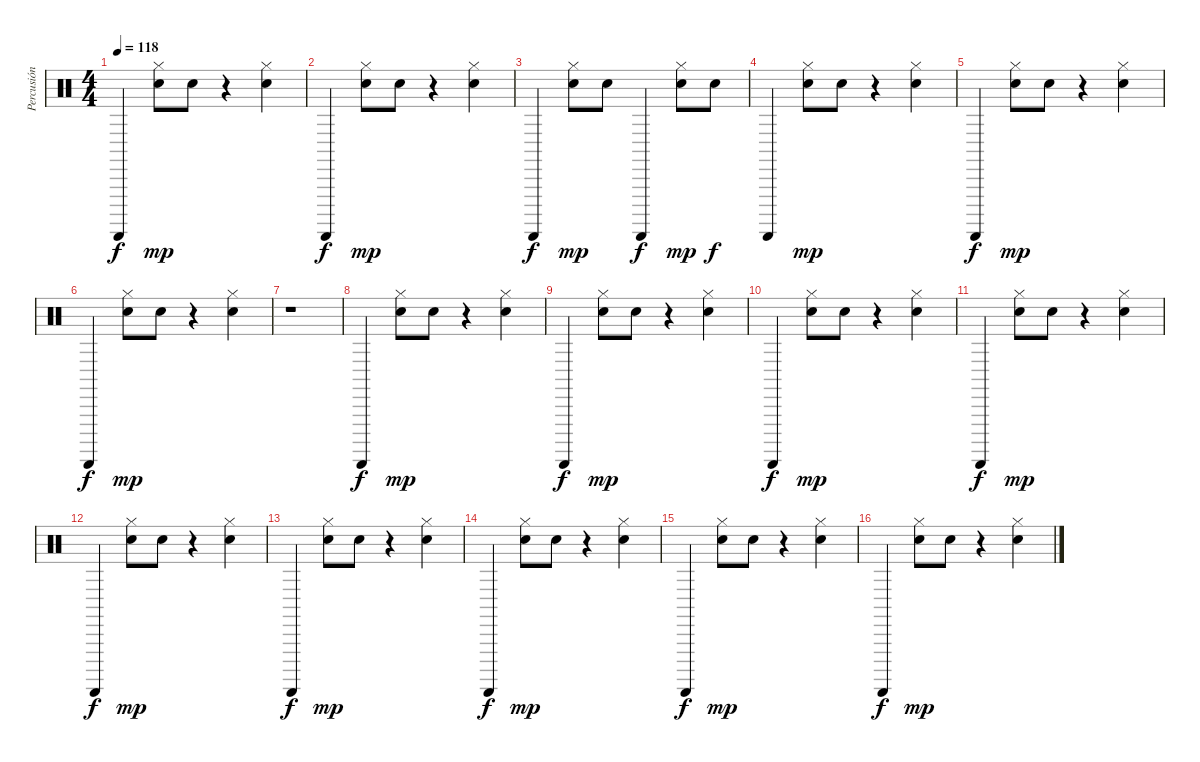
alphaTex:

\track ("Percusión" "Percusión") {instrument percussion}
\staff {score}
\articulation defaults
\ts (4 4)
\tempo 118
\clef neutral
\ks c "Guiro (scrap-return)".4{dy f}
("Snare (hit) 2" "Hi-Hat (closed)").8{dy mp} "Snare (hit) 2".8 r.4 ("Snare (hit) 2" "Hi-Hat (closed)").4 |
"Guiro (scrap-return)".4{dy f} ("Snare (hit) 2" "Hi-Hat (closed)").8{dy mp} "Snare (hit) 2".8 r.4 ("Snare (hit) 2" "Hi-Hat (closed)").4 |
"Guiro (scrap-return)".4{dy f} ("Snare (hit) 2" "Hi-Hat (closed)").8{dy mp} "Snare (hit) 2".8 "Guiro (scrap-return)".4{dy f} ("Snare (hit) 2" "Hi-Hat (closed)").8{dy mp} "Snare (hit) 2".8{dy f} |
"Guiro (scrap-return)".4 ("Snare (hit) 2" "Hi-Hat (closed)").8{dy mp} "Snare (hit) 2".8 r.4 ("Snare (hit) 2" "Hi-Hat (closed)").4 |
"Guiro (scrap-return)".4{dy f} ("Snare (hit) 2" "Hi-Hat (closed)").8{dy mp} "Snare (hit) 2".8 r.4 ("Snare (hit) 2" "Hi-Hat (closed)").4 |
"Guiro (scrap-return)".4{dy f} ("Snare (hit) 2" "Hi-Hat (closed)").8{dy mp} "Snare (hit) 2".8 r.4 ("Snare (hit) 2" "Hi-Hat (closed)").4 |
r.1 |
"Guiro (scrap-return)".4{dy f} ("Snare (hit) 2" "Hi-Hat (closed)").8{dy mp} "Snare (hit) 2".8 r.4 ("Snare (hit) 2" "Hi-Hat (closed)").4 |
"Guiro (scrap-return)".4{dy f} ("Snare (hit) 2" "Hi-Hat (closed)").8{dy mp} "Snare (hit) 2".8 r.4 ("Snare (hit) 2" "Hi-Hat (closed)").4 |
"Guiro (scrap-return)".4{dy f} ("Snare (hit) 2" "Hi-Hat (closed)").8{dy mp} "Snare (hit) 2".8 r.4 ("Snare (hit) 2" "Hi-Hat (closed)").4 |
"Guiro (scrap-return)".4{dy f} ("Snare (hit) 2" "Hi-Hat (closed)").8{dy mp} "Snare (hit) 2".8 r.4 ("Snare (hit) 2" "Hi-Hat (closed)").4 |
"Guiro (scrap-return)".4{dy f} ("Snare (hit) 2" "Hi-Hat (closed)").8{dy mp} "Snare (hit) 2".8 r.4 ("Snare (hit) 2" "Hi-Hat (closed)").4 |
"Guiro (scrap-return)".4{dy f} ("Snare (hit) 2" "Hi-Hat (closed)").8{dy mp} "Snare (hit) 2".8 r.4 ("Snare (hit) 2" "Hi-Hat (closed)").4 |
"Guiro (scrap-return)".4{dy f} ("Snare (hit) 2" "Hi-Hat (closed)").8{dy mp} "Snare (hit) 2".8 r.4 ("Snare (hit) 2" "Hi-Hat (closed)").4 |
"Guiro (scrap-return)".4{dy f} ("Snare (hit) 2" "Hi-Hat (closed)").8{dy mp} "Snare (hit) 2".8 r.4 ("Snare (hit) 2" "Hi-Hat (closed)").4 |
"Guiro (scrap-return)".4{dy f} ("Snare (hit) 2" "Hi-Hat (closed)").8{dy mp} "Snare (hit) 2".8 r.4 ("Snare (hit) 2" "Hi-Hat (closed)").4
